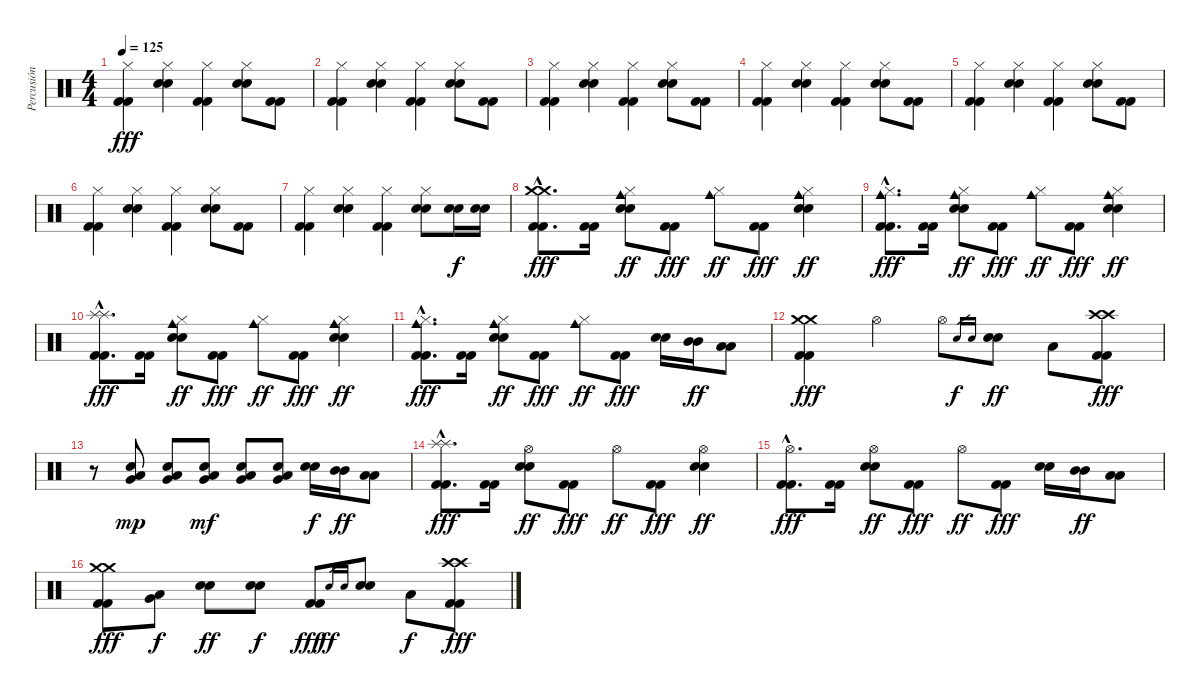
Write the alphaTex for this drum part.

\track ("Percusión" "Percusión") {instrument percussion}
\staff {score}
\articulation defaults
\ts (4 4)
\tempo 125
\clef neutral
\ks c
("Hi-Hat (closed)" "Kick (hit) 2" "Kick (hit) 2").4{dy fff} ("Hi-Hat (closed)" "Electric Snare (hit)" "Electric Snare (hit)").4 ("Hi-Hat (closed)" "Kick (hit) 2" "Kick (hit) 2").4 ("Hi-Hat (closed)" "Electric Snare (hit)" "Electric Snare (hit)").8 ("Kick (hit) 2" "Kick (hit) 2").8 |
("Hi-Hat (closed)" "Kick (hit) 2" "Kick (hit) 2").4 ("Hi-Hat (closed)" "Electric Snare (hit)" "Electric Snare (hit)").4 ("Hi-Hat (closed)" "Kick (hit) 2" "Kick (hit) 2").4 ("Hi-Hat (closed)" "Electric Snare (hit)" "Electric Snare (hit)").8 ("Kick (hit) 2" "Kick (hit) 2").8 |
("Hi-Hat (closed)" "Kick (hit) 2" "Kick (hit) 2").4 ("Hi-Hat (closed)" "Electric Snare (hit)" "Electric Snare (hit)").4 ("Hi-Hat (closed)" "Kick (hit) 2" "Kick (hit) 2").4 ("Hi-Hat (closed)" "Electric Snare (hit)" "Electric Snare (hit)").8 ("Kick (hit) 2" "Kick (hit) 2").8 |
("Hi-Hat (closed)" "Kick (hit) 2" "Kick (hit) 2").4 ("Hi-Hat (closed)" "Electric Snare (hit)" "Electric Snare (hit)").4 ("Hi-Hat (closed)" "Kick (hit) 2" "Kick (hit) 2").4 ("Hi-Hat (closed)" "Electric Snare (hit)" "Electric Snare (hit)").8 ("Kick (hit) 2" "Kick (hit) 2").8 |
("Hi-Hat (closed)" "Kick (hit) 2" "Kick (hit) 2").4 ("Hi-Hat (closed)" "Electric Snare (hit)" "Electric Snare (hit)").4 ("Hi-Hat (closed)" "Kick (hit) 2" "Kick (hit) 2").4 ("Hi-Hat (closed)" "Electric Snare (hit)" "Electric Snare (hit)").8 ("Kick (hit) 2" "Kick (hit) 2").8 |
("Hi-Hat (closed)" "Kick (hit) 2" "Kick (hit) 2").4 ("Hi-Hat (closed)" "Electric Snare (hit)" "Electric Snare (hit)").4 ("Hi-Hat (closed)" "Kick (hit) 2" "Kick (hit) 2").4 ("Hi-Hat (closed)" "Electric Snare (hit)" "Electric Snare (hit)").8 ("Kick (hit) 2" "Kick (hit) 2").8 |
("Hi-Hat (closed)" "Kick (hit) 2" "Kick (hit) 2").4 ("Hi-Hat (closed)" "Electric Snare (hit)" "Electric Snare (hit)").4 ("Hi-Hat (closed)" "Kick (hit) 2" "Kick (hit) 2").4 ("Hi-Hat (closed)" "Electric Snare (hit)" "Electric Snare (hit)").8 ("Electric Snare (hit)" "Electric Snare (hit)").16{dy f} ("Electric Snare (hit)" "Electric Snare (hit)").16 |
("Crash medium (hit)"{hac} "Crash medium (hit)"{hac} "Kick (hit) 2"{hac} "Kick (hit) 2"{hac}).8{d dy fff} ("Kick (hit) 2" "Kick (hit) 2").16 ("Cowbell medium (hit)" "Hi-Hat (closed)" "Electric Snare (hit)" "Electric Snare (hit)").8{dy ff} ("Kick (hit) 2" "Kick (hit) 2").8{dy fff} ("Cowbell medium (hit)" "Hi-Hat (closed)").8{dy ff} ("Kick (hit) 2" "Kick (hit) 2").8{dy fff} ("Cowbell medium (hit)" "Hi-Hat (closed)" "Electric Snare (hit)" "Electric Snare (hit)").4{dy ff} |
("Cowbell medium (hit)"{hac} "Hi-Hat (closed)"{hac} "Kick (hit) 2"{hac} "Kick (hit) 2"{hac}).8{d dy fff} ("Kick (hit) 2" "Kick (hit) 2").16 ("Cowbell medium (hit)" "Hi-Hat (closed)" "Electric Snare (hit)" "Electric Snare (hit)").8{dy ff} ("Kick (hit) 2" "Kick (hit) 2").8{dy fff} ("Cowbell medium (hit)" "Hi-Hat (closed)").8{dy ff} ("Kick (hit) 2" "Kick (hit) 2").8{dy fff} ("Cowbell medium (hit)" "Hi-Hat (closed)" "Electric Snare (hit)" "Electric Snare (hit)").4{dy ff} |
("Splash (hit)"{hac} "Splash (hit)"{hac} "Kick (hit) 2"{hac} "Kick (hit) 2"{hac}).8{d dy fff} ("Kick (hit) 2" "Kick (hit) 2").16 ("Cowbell medium (hit)" "Hi-Hat (closed)" "Electric Snare (hit)" "Electric Snare (hit)").8{dy ff} ("Kick (hit) 2" "Kick (hit) 2").8{dy fff} ("Cowbell medium (hit)" "Hi-Hat (closed)").8{dy ff} ("Kick (hit) 2" "Kick (hit) 2").8{dy fff} ("Cowbell medium (hit)" "Hi-Hat (closed)" "Electric Snare (hit)" "Electric Snare (hit)").4{dy ff} |
("Cowbell medium (hit)"{hac} "Hi-Hat (closed)"{hac} "Kick (hit) 2"{hac} "Kick (hit) 2"{hac}).8{d dy fff} ("Kick (hit) 2" "Kick (hit) 2").16 ("Cowbell medium (hit)" "Hi-Hat (closed)" "Electric Snare (hit)" "Electric Snare (hit)").8{dy ff} ("Kick (hit) 2" "Kick (hit) 2").8{dy fff} ("Cowbell medium (hit)" "Hi-Hat (closed)").8{dy ff} ("Kick (hit) 2" "Kick (hit) 2").8{dy fff} ("Electric Snare (hit)" "Electric Snare (hit)").16 ("Mid Tom (hit)" "Mid Tom (hit)").16{dy ff} ("Low Tom (hit)" "Low Tom (hit)").8 |
("Crash medium (hit)" "Crash medium (hit)" "Kick (hit) 2" "Kick (hit) 2").4{dy fff} "Hi-Hat (open)".4 "Hi-Hat (open)".8 "Electric Snare (hit)".16{gr dy f} "Electric Snare (hit)".16{gr} ("Electric Snare (hit)" "Electric Snare (hit)").8{dy ff} "Low Tom (hit)".8 ("Crash high (hit)" "Crash high (hit)" "Kick (hit) 2" "Kick (hit) 2").8{dy fff} |
r.8 ("Electric Snare (hit)" "Low Tom (hit)" "Very Low Tom (hit)").8{dy mp} ("Electric Snare (hit)" "Low Tom (hit)" "Very Low Tom (hit)").8 ("Electric Snare (hit)" "Low Tom (hit)" "Very Low Tom (hit)").8{dy mf} ("Electric Snare (hit)" "Low Tom (hit)" "Very Low Tom (hit)").8 ("Electric Snare (hit)" "Low Tom (hit)" "Very Low Tom (hit)").8 ("Electric Snare (hit)" "Electric Snare (hit)").16{dy f} ("Mid Tom (hit)" "Mid Tom (hit)").16{dy ff} ("Low Tom (hit)" "Low Tom (hit)").8 |
("Splash (hit)"{hac} "Splash (hit)"{hac} "Kick (hit) 2"{hac} "Kick (hit) 2"{hac}).8{d dy fff} ("Kick (hit) 2" "Kick (hit) 2").16 ("Hi-Hat (open)" "Electric Snare (hit)" "Electric Snare (hit)").8{dy ff} ("Kick (hit) 2" "Kick (hit) 2").8{dy fff} "Hi-Hat (open)".8{dy ff} ("Kick (hit) 2" "Kick (hit) 2").8{dy fff} ("Hi-Hat (open)" "Electric Snare (hit)" "Electric Snare (hit)").4{dy ff} |
("Hi-Hat (open)"{hac} "Kick (hit) 2"{hac} "Kick (hit) 2"{hac}).8{d dy fff} ("Kick (hit) 2" "Kick (hit) 2").16 ("Hi-Hat (open)" "Electric Snare (hit)" "Electric Snare (hit)").8{dy ff} ("Kick (hit) 2" "Kick (hit) 2").8{dy fff} "Hi-Hat (open)".8{dy ff} ("Kick (hit) 2" "Kick (hit) 2").8{dy fff} ("Electric Snare (hit)" "Electric Snare (hit)").16 ("Mid Tom (hit)" "Mid Tom (hit)").16{dy ff} ("Low Tom (hit)" "Low Tom (hit)").8 |
("Crash medium (hit)" "Crash medium (hit)" "Kick (hit) 2" "Kick (hit) 2").8{dy fff} ("Very Low Tom (hit)" "Low Tom (hit)").8{dy f} ("Electric Snare (hit)" "Electric Snare (hit)").8{dy ff} ("Electric Snare (hit)" "Electric Snare (hit)").8{dy f} ("Kick (hit) 2" "Kick (hit) 2").8{dy fff} "Electric Snare (hit)".16{gr dy ff} "Electric Snare (hit)".16{gr} ("Electric Snare (hit)" "Electric Snare (hit)").8 "Low Tom (hit)".8{dy f} ("Crash high (hit)" "Crash high (hit)" "Kick (hit) 2" "Kick (hit) 2").8{dy fff}
